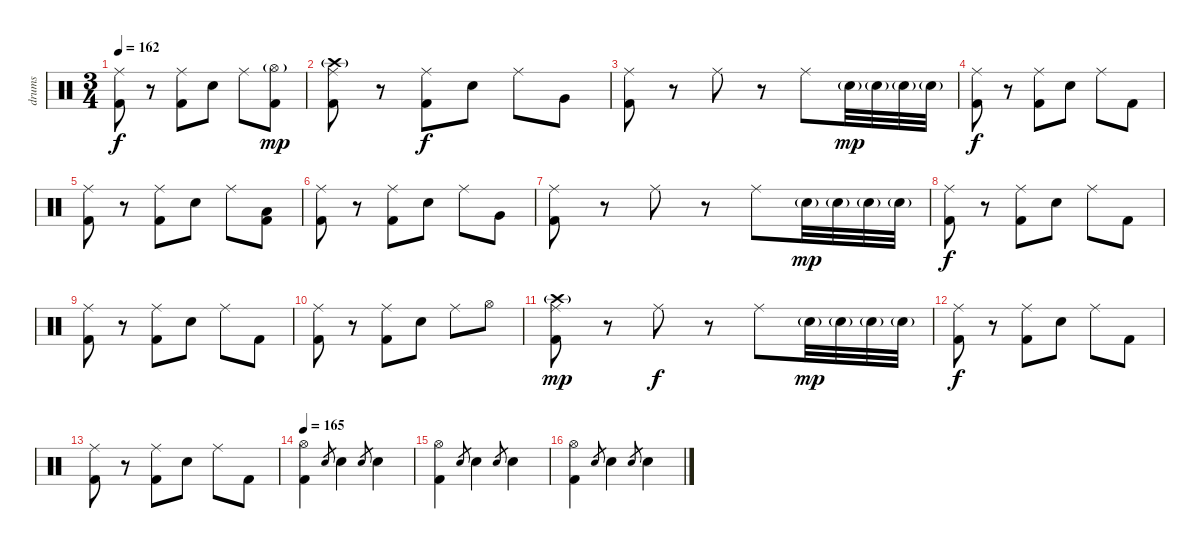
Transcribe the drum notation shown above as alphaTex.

\track ("drums" "drums") {instrument percussion}
\staff {score}
\articulation defaults
\ts (3 4)
\tempo 162
\clef neutral
\ks c
("Ride (middle)" "Kick (hit) 2").8{dy f} r.8 ("Ride (middle)" "Kick (hit) 2").8 "Snare (hit) 2".8 "Ride (middle)".8 ("Hi-Hat (open)"{g} "Kick (hit) 2").8{dy mp} |
("Crash high (hit)"{g} "Ride (middle)" "Kick (hit) 2").8 r.8 ("Ride (middle)" "Kick (hit) 2").8{dy f} "Snare (hit) 2".8 "Ride (middle)".8 "Very Low Tom (hit)".8 |
("Ride (middle)" "Kick (hit) 2").8 r.8 "Ride (middle)".8 r.8 "Ride (middle)".8 "Snare (hit) 2"{g}.32{dy mp} "Snare (hit) 2"{g}.32 "Snare (hit) 2"{g}.32 "Snare (hit) 2"{g}.32 |
("Ride (middle)" "Kick (hit) 2").8{dy f} r.8 ("Ride (middle)" "Kick (hit) 2").8 "Snare (hit) 2".8 "Ride (middle)".8 "Kick (hit) 2".8 |
("Ride (middle)" "Kick (hit) 2").8 r.8 ("Ride (middle)" "Kick (hit) 2").8 "Snare (hit) 2".8 "Ride (middle)".8 ("Low Floor Tom (hit)" "Kick (hit) 2").8 |
("Ride (middle)" "Kick (hit) 2").8 r.8 ("Ride (middle)" "Kick (hit) 2").8 "Snare (hit) 2".8 "Ride (middle)".8 "Very Low Tom (hit)".8 |
("Ride (middle)" "Kick (hit) 2").8 r.8 "Ride (middle)".8 r.8 "Ride (middle)".8 "Snare (hit) 2"{g}.32{dy mp} "Snare (hit) 2"{g}.32 "Snare (hit) 2"{g}.32 "Snare (hit) 2"{g}.32 |
("Ride (middle)" "Kick (hit) 2").8{dy f} r.8 ("Ride (middle)" "Kick (hit) 2").8 "Snare (hit) 2".8 "Ride (middle)".8 "Kick (hit) 2".8 |
("Ride (middle)" "Kick (hit) 2").8 r.8 ("Ride (middle)" "Kick (hit) 2").8 "Snare (hit) 2".8 "Ride (middle)".8 "Kick (hit) 2".8 |
("Ride (middle)" "Kick (hit) 2").8 r.8 ("Ride (middle)" "Kick (hit) 2").8 "Snare (hit) 2".8 "Ride (middle)".8 "Hi-Hat (open)".8 |
("Crash high (hit)"{g} "Ride (middle)" "Kick (hit) 2").8{dy mp} r.8 "Ride (middle)".8{dy f} r.8 "Ride (middle)".8 "Snare (hit) 2"{g}.32{dy mp} "Snare (hit) 2"{g}.32 "Snare (hit) 2"{g}.32 "Snare (hit) 2"{g}.32 |
("Ride (middle)" "Kick (hit) 2").8{dy f} r.8 ("Ride (middle)" "Kick (hit) 2").8 "Snare (hit) 2".8 "Ride (middle)".8 "Kick (hit) 2".8 |
("Ride (middle)" "Kick (hit) 2").8 r.8 ("Ride (middle)" "Kick (hit) 2").8 "Snare (hit) 2".8 "Ride (middle)".8 "Kick (hit) 2".8 |
\tempo 165
("Hi-Hat (open)" "Kick (hit) 2").4 "Snare (hit) 2".8{gr} "Snare (hit) 2".4 "Snare (hit) 2".8{gr} "Snare (hit) 2".4 |
("Hi-Hat (open)" "Kick (hit) 2").4 "Snare (hit) 2".8{gr} "Snare (hit) 2".4 "Snare (hit) 2".8{gr} "Snare (hit) 2".4 |
("Hi-Hat (open)" "Kick (hit) 2").4 "Snare (hit) 2".8{gr} "Snare (hit) 2".4 "Snare (hit) 2".8{gr} "Snare (hit) 2".4
